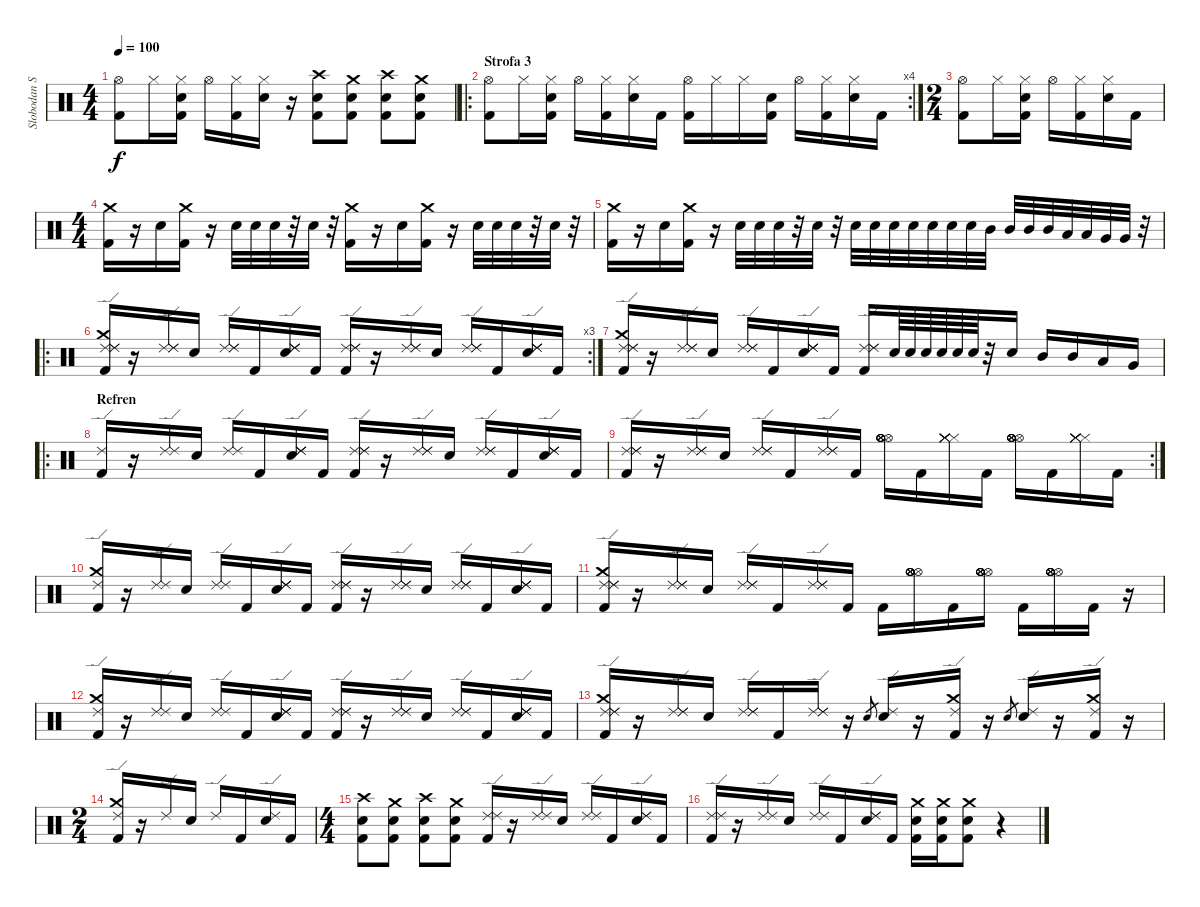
\track ("Slobodan Stojanovic" "Slobodan S") {instrument percussion}
\staff {score}
\articulation defaults
\ts (4 4)
\tempo 100
\clef neutral
\ks c
("Hi-Hat (open)" "Kick (hit) 2").8{dy f} "Hi-Hat (closed)".16 ("Hi-Hat (closed)" "Snare (hit) 2" "Kick (hit) 2").16 "Hi-Hat (open)".16 ("Hi-Hat (closed)" "Kick (hit) 2").16 ("Hi-Hat (closed)" "Snare (hit) 2").16 r.16 ("Kick (hit) 2" "Snare (hit) 2" "Crash high (hit)").8 ("Kick (hit) 2" "Snare (hit) 2" "Crash medium (hit)").8 ("Kick (hit) 2" "Snare (hit) 2" "Crash high (hit)").8 ("Kick (hit) 2" "Snare (hit) 2" "Crash medium (hit)").8 |
\ro
\rc 4
\section ("" "Strofa 3")
("Hi-Hat (open)" "Kick (hit) 2").8 "Hi-Hat (closed)".16 ("Hi-Hat (closed)" "Snare (hit) 2" "Kick (hit) 2").16 "Hi-Hat (open)".16 ("Hi-Hat (closed)" "Kick (hit) 2").16 ("Hi-Hat (closed)" "Snare (hit) 2").16 "Kick (hit) 2".16 ("Hi-Hat (open)" "Kick (hit) 2").16 "Hi-Hat (closed)".16 "Hi-Hat (closed)".16 ("Snare (hit) 2" "Kick (hit) 2").16 "Hi-Hat (open)".16 ("Hi-Hat (closed)" "Kick (hit) 2").16 ("Hi-Hat (closed)" "Snare (hit) 2").16 "Kick (hit) 2".16 |
\ts (2 4)
("Hi-Hat (open)" "Kick (hit) 2").8 "Hi-Hat (closed)".16 ("Hi-Hat (closed)" "Snare (hit) 2" "Kick (hit) 2").16 "Hi-Hat (open)".16 ("Hi-Hat (closed)" "Kick (hit) 2").16 ("Hi-Hat (closed)" "Snare (hit) 2").16 "Kick (hit) 2".16 |
\ts (4 4)
("Kick (hit) 2" "Crash medium (hit)").16 r.16 "Snare (hit) 2".16 ("Kick (hit) 2" "Crash medium (hit)").16 r.16 "Snare (hit) 2".32 "Snare (hit) 2".32 "Snare (hit) 2".32 r.32 "Snare (hit) 2".32 r.32 ("Kick (hit) 2" "Crash medium (hit)").16 r.16 "Snare (hit) 2".16 ("Kick (hit) 2" "Crash medium (hit)").16 r.16 "Snare (hit) 2".32 "Snare (hit) 2".32 "Snare (hit) 2".32 r.32 "Snare (hit) 2".32 r.32 |
("Kick (hit) 2" "Crash medium (hit)").16 r.16 "Snare (hit) 2".16 ("Kick (hit) 2" "Crash medium (hit)").16 r.16 "Snare (hit) 2".32 "Snare (hit) 2".32 "Snare (hit) 2".32 r.32 "Snare (hit) 2".32 r.32 "Snare (hit) 2".32 "Snare (hit) 2".32 "Snare (hit) 2".32 "Snare (hit) 2".32 "Snare (hit) 2".32 "Snare (hit) 2".32 "Snare (hit) 2".32 "Mid Tom (hit)".32 "Mid Tom (hit)".32 "Mid Tom (hit)".32 "Mid Tom (hit)".32 "Low Tom (hit)".32 "Low Tom (hit)".32 "Very Low Tom (hit)".32 "Very Low Tom (hit)".32 r.32 |
\ro
\rc 3
("Crash medium (hit)" "Kick (hit) 2" "Ride (edge) 2" "Ride (edge) 2" "Ride (edge) 2").16 r.16 ("Ride (edge) 2" "Ride (edge) 2" "Ride (edge) 2").16 "Snare (hit) 2".16 ("Ride (edge) 2" "Ride (edge) 2" "Ride (edge) 2").16 "Kick (hit) 2".16 ("Snare (hit) 2" "Ride (edge) 2" "Ride (edge) 2" "Ride (edge) 2").16 "Kick (hit) 2".16 ("Kick (hit) 2" "Ride (edge) 2" "Ride (edge) 2" "Ride (edge) 2").16 r.16 ("Ride (edge) 2" "Ride (edge) 2" "Ride (edge) 2").16 "Snare (hit) 2".16 ("Ride (edge) 2" "Ride (edge) 2" "Ride (edge) 2").16 "Kick (hit) 2".16 ("Snare (hit) 2" "Ride (edge) 2" "Ride (edge) 2" "Ride (edge) 2").16 "Kick (hit) 2".16 |
("Crash medium (hit)" "Kick (hit) 2" "Ride (edge) 2" "Ride (edge) 2" "Ride (edge) 2").16 r.16 ("Ride (edge) 2" "Ride (edge) 2" "Ride (edge) 2").16 "Snare (hit) 2".16 ("Ride (edge) 2" "Ride (edge) 2" "Ride (edge) 2").16 "Kick (hit) 2".16 ("Snare (hit) 2" "Ride (edge) 2" "Ride (edge) 2" "Ride (edge) 2").16 "Kick (hit) 2".16 ("Kick (hit) 2" "Ride (edge) 2" "Ride (edge) 2" "Ride (edge) 2").16 "Snare (hit) 2".64 "Snare (hit) 2".64 "Snare (hit) 2".64 "Snare (hit) 2".64 "Snare (hit) 2".64 "Snare (hit) 2".64 r.32 "Snare (hit) 2".16 "Mid Tom (hit)".16 "Mid Tom (hit)".16 "Low Tom (hit)".16 "Very Low Tom (hit)".16 |
\ro
\section ("" "Refren")
("Kick (hit) 2" "Ride (edge) 2").16 r.16 ("Ride (edge) 2" "Ride (edge) 2").16 "Snare (hit) 2".16 ("Ride (edge) 2" "Ride (edge) 2").16 "Kick (hit) 2".16 ("Snare (hit) 2" "Ride (edge) 2" "Ride (edge) 2" "Ride (edge) 2").16 "Kick (hit) 2".16 ("Kick (hit) 2" "Ride (edge) 2" "Ride (edge) 2" "Ride (edge) 2").16 r.16 ("Ride (edge) 2" "Ride (edge) 2" "Ride (edge) 2").16 "Snare (hit) 2".16 ("Ride (edge) 2" "Ride (edge) 2" "Ride (edge) 2").16 "Kick (hit) 2".16 ("Snare (hit) 2" "Ride (edge) 2" "Ride (edge) 2" "Ride (edge) 2").16 "Kick (hit) 2".16 |
\rc 2
("Kick (hit) 2" "Ride (edge) 2" "Ride (edge) 2" "Ride (edge) 2").16 r.16 ("Ride (edge) 2" "Ride (edge) 2" "Ride (edge) 2").16 "Snare (hit) 2".16 ("Ride (edge) 2" "Ride (edge) 2" "Ride (edge) 2").16 "Kick (hit) 2".16 ("Ride (edge) 2" "Ride (edge) 2" "Ride (edge) 2").16 "Kick (hit) 2".16 ("Hi-Hat (open)" "Hi-Hat (open)" "Hi-Hat (open)" "Hi-Hat (open)" "Hi-Hat (open)" "Hi-Hat (open)").16 "Kick (hit) 2".16 ("Hi-Hat (closed)" "Hi-Hat (closed)" "Hi-Hat (closed)" "Hi-Hat (closed)" "Hi-Hat (closed)" "Hi-Hat (closed)").16 "Kick (hit) 2".16 ("Hi-Hat (open)" "Hi-Hat (open)" "Hi-Hat (open)" "Hi-Hat (open)" "Hi-Hat (open)" "Hi-Hat (open)").16 "Kick (hit) 2".16 ("Hi-Hat (closed)" "Hi-Hat (closed)" "Hi-Hat (closed)" "Hi-Hat (closed)" "Hi-Hat (closed)" "Hi-Hat (closed)").16 "Kick (hit) 2".16 |
("Crash medium (hit)" "Kick (hit) 2" "Ride (edge) 2").16 r.16 ("Ride (edge) 2" "Ride (edge) 2").16 "Snare (hit) 2".16 ("Ride (edge) 2" "Ride (edge) 2").16 "Kick (hit) 2".16 ("Snare (hit) 2" "Ride (edge) 2" "Ride (edge) 2" "Ride (edge) 2").16 "Kick (hit) 2".16 ("Kick (hit) 2" "Ride (edge) 2" "Ride (edge) 2" "Ride (edge) 2").16 r.16 ("Ride (edge) 2" "Ride (edge) 2" "Ride (edge) 2").16 "Snare (hit) 2".16 ("Ride (edge) 2" "Ride (edge) 2" "Ride (edge) 2").16 "Kick (hit) 2".16 ("Snare (hit) 2" "Ride (edge) 2" "Ride (edge) 2" "Ride (edge) 2").16 "Kick (hit) 2".16 |
("Crash medium (hit)" "Kick (hit) 2" "Ride (edge) 2" "Ride (edge) 2" "Ride (edge) 2").16 r.16 ("Ride (edge) 2" "Ride (edge) 2" "Ride (edge) 2").16 "Snare (hit) 2".16 ("Ride (edge) 2" "Ride (edge) 2" "Ride (edge) 2").16 "Kick (hit) 2".16 ("Ride (edge) 2" "Ride (edge) 2" "Ride (edge) 2").16 "Kick (hit) 2".16 "Kick (hit) 2".16 ("Hi-Hat (open)" "Hi-Hat (open)" "Hi-Hat (open)" "Hi-Hat (open)" "Hi-Hat (open)" "Hi-Hat (open)").16 "Kick (hit) 2".16 ("Hi-Hat (open)" "Hi-Hat (open)" "Hi-Hat (open)" "Hi-Hat (open)" "Hi-Hat (open)" "Hi-Hat (open)").16 "Kick (hit) 2".16 ("Hi-Hat (open)" "Hi-Hat (open)" "Hi-Hat (open)" "Hi-Hat (open)" "Hi-Hat (open)" "Hi-Hat (open)").16 "Kick (hit) 2".16 r.16 |
("Crash medium (hit)" "Kick (hit) 2" "Ride (edge) 2").16 r.16 ("Ride (edge) 2" "Ride (edge) 2").16 "Snare (hit) 2".16 ("Ride (edge) 2" "Ride (edge) 2").16 "Kick (hit) 2".16 ("Snare (hit) 2" "Ride (edge) 2" "Ride (edge) 2" "Ride (edge) 2").16 "Kick (hit) 2".16 ("Kick (hit) 2" "Ride (edge) 2" "Ride (edge) 2" "Ride (edge) 2").16 r.16 ("Ride (edge) 2" "Ride (edge) 2" "Ride (edge) 2").16 "Snare (hit) 2".16 ("Ride (edge) 2" "Ride (edge) 2" "Ride (edge) 2").16 "Kick (hit) 2".16 ("Snare (hit) 2" "Ride (edge) 2" "Ride (edge) 2" "Ride (edge) 2").16 "Kick (hit) 2".16 |
("Crash medium (hit)" "Kick (hit) 2" "Ride (edge) 2" "Ride (edge) 2" "Ride (edge) 2").16 r.16 ("Ride (edge) 2" "Ride (edge) 2" "Ride (edge) 2").16 "Snare (hit) 2".16 ("Ride (edge) 2" "Ride (edge) 2" "Ride (edge) 2").16 "Kick (hit) 2".16 ("Ride (edge) 2" "Ride (edge) 2" "Ride (edge) 2").16 r.16 "Snare (hit) 2".8{gr} ("Snare (hit) 2" "Ride (edge) 2").16 r.16 ("Crash medium (hit)" "Kick (hit) 2" "Ride (edge) 2").16 r.16 "Snare (hit) 2".8{gr} ("Snare (hit) 2" "Ride (edge) 2").16 r.16 ("Crash medium (hit)" "Kick (hit) 2" "Ride (edge) 2").16 r.16 |
\ts (2 4)
("Crash medium (hit)" "Kick (hit) 2" "Ride (edge) 2").16 r.16 "Ride (edge) 2".16 "Snare (hit) 2".16 "Ride (edge) 2".16 "Kick (hit) 2".16 ("Snare (hit) 2" "Ride (edge) 2").16 "Kick (hit) 2".16 |
\ts (4 4)
("Kick (hit) 2" "Snare (hit) 2" "Crash high (hit)").8 ("Kick (hit) 2" "Snare (hit) 2" "Crash medium (hit)").8 ("Kick (hit) 2" "Snare (hit) 2" "Crash high (hit)").8 ("Kick (hit) 2" "Snare (hit) 2" "Crash medium (hit)").8 ("Kick (hit) 2" "Ride (edge) 2" "Ride (edge) 2").16 r.16 ("Ride (edge) 2" "Ride (edge) 2").16 "Snare (hit) 2".16 ("Ride (edge) 2" "Ride (edge) 2").16 "Kick (hit) 2".16 ("Snare (hit) 2" "Ride (edge) 2" "Ride (edge) 2").16 "Kick (hit) 2".16 |
("Kick (hit) 2" "Ride (edge) 2" "Ride (edge) 2").16 r.16 ("Ride (edge) 2" "Ride (edge) 2").16 "Snare (hit) 2".16 ("Ride (edge) 2" "Ride (edge) 2").16 "Kick (hit) 2".16 ("Snare (hit) 2" "Ride (edge) 2" "Ride (edge) 2").16 "Kick (hit) 2".16 ("Kick (hit) 2" "Snare (hit) 2" "Crash medium (hit)").16 ("Kick (hit) 2" "Snare (hit) 2" "Crash medium (hit)").16 ("Kick (hit) 2" "Snare (hit) 2" "Crash medium (hit)").8 r.4
